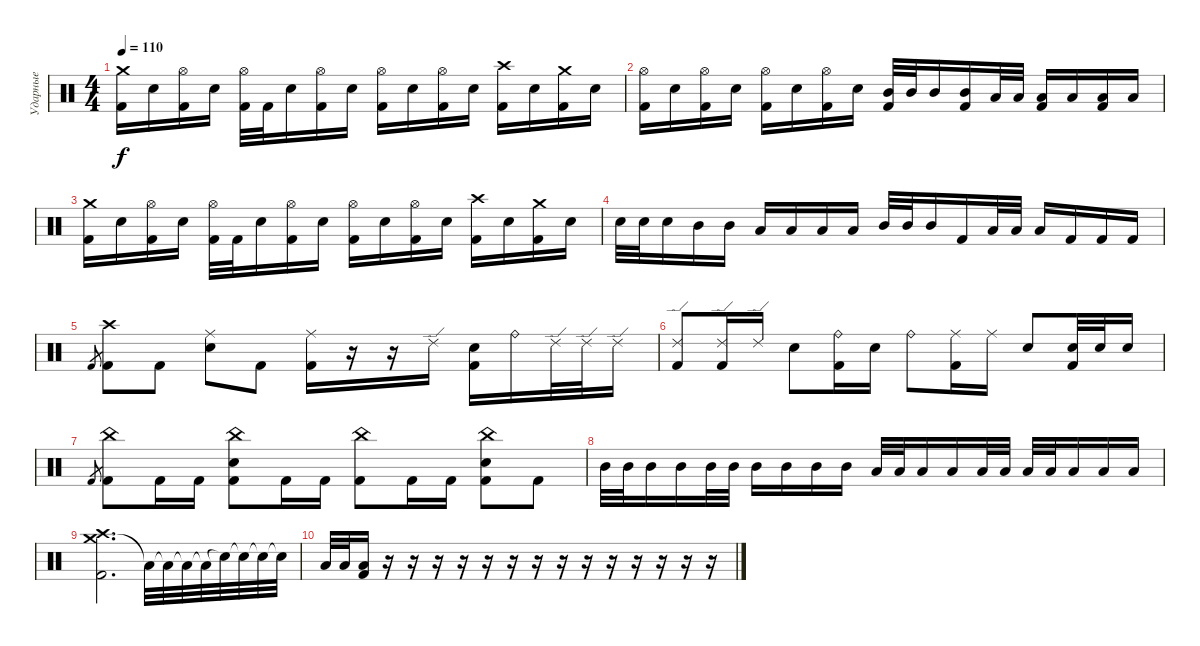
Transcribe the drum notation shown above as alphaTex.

\track ("Ударные" "Ударные") {instrument percussion}
\staff {score}
\articulation defaults
\ts (4 4)
\tempo 110
\clef neutral
\ks c
("Crash medium (hit)" "Kick (hit) 2").16{dy f} "Snare (hit) 2".16 ("Hi-Hat (open)" "Kick (hit) 2").16 "Snare (hit) 2".16 ("Hi-Hat (open)" "Kick (hit) 2").32 "Kick (hit) 2".32 "Snare (hit) 2".16 ("Hi-Hat (open)" "Kick (hit) 2").16 "Snare (hit) 2".16 ("Hi-Hat (open)" "Kick (hit) 2").16 "Snare (hit) 2".16 ("Hi-Hat (open)" "Kick (hit) 2").16 "Snare (hit) 2".16 ("Crash high (hit)" "Kick (hit) 2").16 "Snare (hit) 2".16 ("Crash medium (hit)" "Kick (hit) 2").16 "Snare (hit) 2".16 |
("Hi-Hat (open)" "Kick (hit) 2").16 "Snare (hit) 2".16 ("Hi-Hat (open)" "Kick (hit) 2").16 "Snare (hit) 2".16 ("Hi-Hat (open)" "Kick (hit) 2").16 "Snare (hit) 2".16 ("Hi-Hat (open)" "Kick (hit) 2").16 "Snare (hit) 2".16 ("Mid Tom (hit)" "Kick (hit) 2").32 "Mid Tom (hit)".32 "Mid Tom (hit)".16 ("Mid Tom (hit)" "Kick (hit) 2").16 "Low Tom (hit)".32 "Low Tom (hit)".32 ("Low Tom (hit)" "Kick (hit) 2").16 "Low Tom (hit)".16 ("Low Floor Tom (hit)" "Kick (hit) 2").16 "Low Floor Tom (hit)".16 |
("Crash medium (hit)" "Kick (hit) 2").16 "Snare (hit) 2".16 ("Hi-Hat (open)" "Kick (hit) 2").16 "Snare (hit) 2".16 ("Hi-Hat (open)" "Kick (hit) 2").32 "Kick (hit) 2".32 "Snare (hit) 2".16 ("Hi-Hat (open)" "Kick (hit) 2").16 "Snare (hit) 2".16 ("Hi-Hat (open)" "Kick (hit) 2").16 "Snare (hit) 2".16 ("Hi-Hat (open)" "Kick (hit) 2").16 "Snare (hit) 2".16 ("Crash high (hit)" "Kick (hit) 2").16 "Snare (hit) 2".16 ("Crash medium (hit)" "Kick (hit) 2").16 "Snare (hit) 2".16 |
"Snare (hit) 2".32 "Snare (hit) 2".32 "Snare (hit) 2".16 "Mid Tom (hit)".16 "Mid Tom (hit)".16 "Low Tom (hit)".16 "Low Tom (hit)".16 "Low Floor Tom (hit)".16 "Low Floor Tom (hit)".16 "Mid Tom (hit)".32 "Mid Tom (hit)".32 "Mid Tom (hit)".16 "Kick (hit) 2".16 "Low Tom (hit)".32 "Low Tom (hit)".32 "Low Tom (hit)".16 "Kick (hit) 2".16 "Kick (hit) 2".16 "Kick (hit) 2".16 |
"Kick (hit) 2".8{gr} ("Crash high (hit)" "Kick (hit) 2").8 "Kick (hit) 2".8 ("Ride (middle)" "Snare (hit) 2").8 "Kick (hit) 2".8 ("Ride (middle)" "Kick (hit) 2").16 r.16 r.16 "Ride (edge) 2".16 ("Snare (hit) 2" "Kick (hit) 2").16 "Ride (bell)".16 "Ride (edge) 2".32 "Ride (edge) 2".32 "Ride (edge) 2".16 |
("Ride (edge) 2" "Kick (hit) 2").8 ("Ride (edge) 2" "Kick (hit) 2").16 "Ride (edge) 2".16 "Snare (hit) 2".8 ("Ride (bell)" "Kick (hit) 2").16 "Snare (hit) 2".16 "Ride (bell)".8 ("Ride (middle)" "Kick (hit) 2").16 "Ride (middle)".16 "Snare (hit) 2".8 ("Snare (hit) 2" "Kick (hit) 2").32 "Snare (hit) 2".32 "Snare (hit) 2".16 |
"Kick (hit) 2".8{gr} ("China (hit)" "Kick (hit) 2").8 "Kick (hit) 2".16 "Kick (hit) 2".16 ("China (hit)" "Snare (hit) 2" "Kick (hit) 2").8 "Kick (hit) 2".16 "Kick (hit) 2".16 ("China (hit)" "Kick (hit) 2").8 "Kick (hit) 2".16 "Kick (hit) 2".16 ("China (hit)" "Snare (hit) 2" "Kick (hit) 2").8 "Kick (hit) 2".8 |
"Mid Tom (hit)".32 "Mid Tom (hit)".32 "Mid Tom (hit)".16 "Mid Tom (hit)".16 "Mid Tom (hit)".32 "Mid Tom (hit)".32 "Mid Tom (hit)".16 "Mid Tom (hit)".16 "Mid Tom (hit)".16 "Mid Tom (hit)".16 "Low Floor Tom (hit)".32 "Low Floor Tom (hit)".32 "Low Floor Tom (hit)".16 "Low Floor Tom (hit)".16 "Low Floor Tom (hit)".32 "Low Floor Tom (hit)".32 "Low Floor Tom (hit)".32 "Low Floor Tom (hit)".32 "Low Floor Tom (hit)".16 "Low Floor Tom (hit)".16 "Low Floor Tom (hit)".16 |
("Crash medium (hit)" "Crash high (hit)" "Kick (hit) 2").2{d} "Low Tom (hit)"{t}.32 "Low Floor Tom (hit)"{t}.32 "Low Floor Tom (hit)"{t}.32 "Low Tom (hit)"{t}.32 "Snare (hit)"{t}.32 "Snare (hit)"{t}.32 "Snare (hit)"{t}.32 "Snare (hit)"{t}.32 |
"Low Floor Tom (hit)".32 "Low Tom (hit)".32 ("Low Floor Tom (hit)" "Kick (hit) 2").16 r.16 r.16 r.16 r.16 r.16 r.16 r.16 r.16 r.16 r.16 r.16 r.16 r.16 r.16
